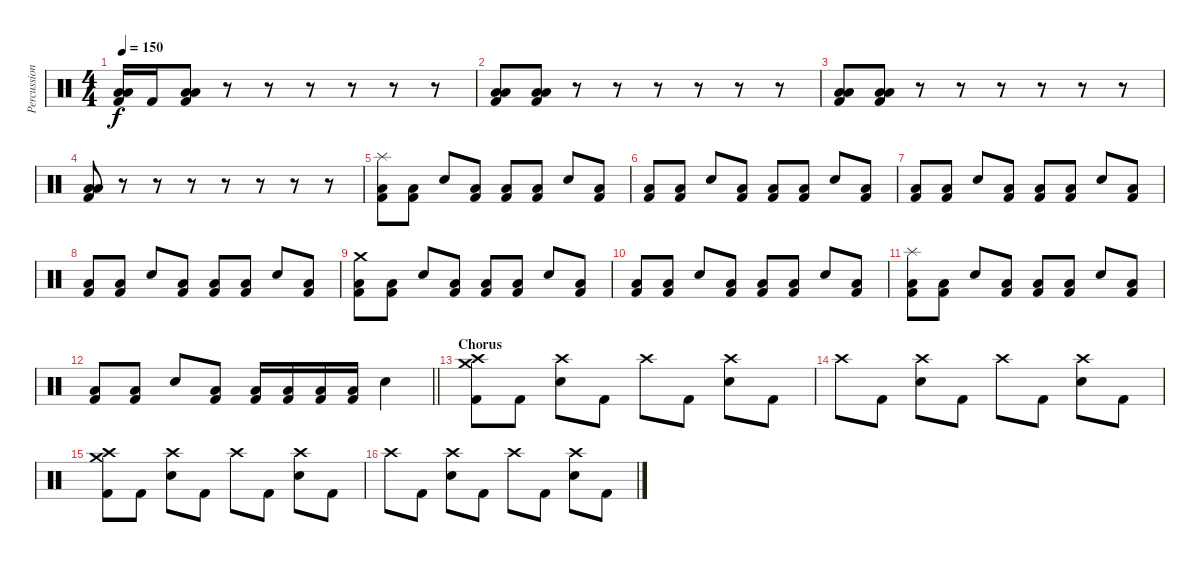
\track ("Percussion" "Percussion") {instrument percussion}
\staff {score}
\articulation defaults
\ts (4 4)
\tempo 150
\clef neutral
\ks c
("Low Tom (hit)" "Low Floor Tom (hit)" "Kick (hit) 2").16{dy f} "Kick (hit) 2".16 ("Low Tom (hit)" "Low Floor Tom (hit)" "Kick (hit) 2").8 r.8 r.8 r.8 r.8 r.8 r.8 |
("Low Tom (hit)" "Low Floor Tom (hit)" "Kick (hit) 2").8 ("Low Tom (hit)" "Low Floor Tom (hit)" "Kick (hit) 2").8 r.8 r.8 r.8 r.8 r.8 r.8 |
("Low Tom (hit)" "Low Floor Tom (hit)" "Kick (hit) 2").8 ("Low Tom (hit)" "Low Floor Tom (hit)" "Kick (hit) 2").8 r.8 r.8 r.8 r.8 r.8 r.8 |
("Low Tom (hit)" "Low Floor Tom (hit)" "Kick (hit) 2").8 r.8 r.8 r.8 r.8 r.8 r.8 r.8 |
("Splash (hit)" "Low Floor Tom (hit)" "Kick (hit) 2").8 ("Low Floor Tom (hit)" "Kick (hit) 2").8 "Snare (hit) 2".8 ("Low Floor Tom (hit)" "Kick (hit) 2").8 ("Low Floor Tom (hit)" "Kick (hit) 2").8 ("Low Floor Tom (hit)" "Kick (hit) 2").8 "Snare (hit) 2".8 ("Low Floor Tom (hit)" "Kick (hit) 2").8 |
("Low Floor Tom (hit)" "Kick (hit) 2").8 ("Low Floor Tom (hit)" "Kick (hit) 2").8 "Snare (hit) 2".8 ("Low Floor Tom (hit)" "Kick (hit) 2").8 ("Low Floor Tom (hit)" "Kick (hit) 2").8 ("Low Floor Tom (hit)" "Kick (hit) 2").8 "Snare (hit) 2".8 ("Low Floor Tom (hit)" "Kick (hit) 2").8 |
("Low Floor Tom (hit)" "Kick (hit) 2").8 ("Low Floor Tom (hit)" "Kick (hit) 2").8 "Snare (hit) 2".8 ("Low Floor Tom (hit)" "Kick (hit) 2").8 ("Low Floor Tom (hit)" "Kick (hit) 2").8 ("Low Floor Tom (hit)" "Kick (hit) 2").8 "Snare (hit) 2".8 ("Low Floor Tom (hit)" "Kick (hit) 2").8 |
("Low Floor Tom (hit)" "Kick (hit) 2").8 ("Low Floor Tom (hit)" "Kick (hit) 2").8 "Snare (hit) 2".8 ("Low Floor Tom (hit)" "Kick (hit) 2").8 ("Low Floor Tom (hit)" "Kick (hit) 2").8 ("Low Floor Tom (hit)" "Kick (hit) 2").8 "Snare (hit) 2".8 ("Low Floor Tom (hit)" "Kick (hit) 2").8 |
("Crash medium (hit)" "Low Floor Tom (hit)" "Kick (hit) 2").8 ("Low Floor Tom (hit)" "Kick (hit) 2").8 "Snare (hit) 2".8 ("Low Floor Tom (hit)" "Kick (hit) 2").8 ("Low Floor Tom (hit)" "Kick (hit) 2").8 ("Low Floor Tom (hit)" "Kick (hit) 2").8 "Snare (hit) 2".8 ("Low Floor Tom (hit)" "Kick (hit) 2").8 |
("Low Floor Tom (hit)" "Kick (hit) 2").8 ("Low Floor Tom (hit)" "Kick (hit) 2").8 "Snare (hit) 2".8 ("Low Floor Tom (hit)" "Kick (hit) 2").8 ("Low Floor Tom (hit)" "Kick (hit) 2").8 ("Low Floor Tom (hit)" "Kick (hit) 2").8 "Snare (hit) 2".8 ("Low Floor Tom (hit)" "Kick (hit) 2").8 |
("Splash (hit)" "Low Floor Tom (hit)" "Kick (hit) 2").8 ("Low Floor Tom (hit)" "Kick (hit) 2").8 "Snare (hit) 2".8 ("Low Floor Tom (hit)" "Kick (hit) 2").8 ("Low Floor Tom (hit)" "Kick (hit) 2").8 ("Low Floor Tom (hit)" "Kick (hit) 2").8 "Snare (hit) 2".8 ("Low Floor Tom (hit)" "Kick (hit) 2").8 |
\barLineRight lightlight
("Low Floor Tom (hit)" "Kick (hit) 2").8 ("Low Floor Tom (hit)" "Kick (hit) 2").8 "Snare (hit) 2".8 ("Low Floor Tom (hit)" "Kick (hit) 2").8 ("Low Floor Tom (hit)" "Kick (hit) 2").16 ("Low Floor Tom (hit)" "Kick (hit) 2").16 ("Low Floor Tom (hit)" "Kick (hit) 2").16 ("Low Floor Tom (hit)" "Kick (hit) 2").16 "Snare (hit) 2".4 |
\section ("" "Chorus")
("Crash high (hit)" "Crash medium (hit)" "Kick (hit) 2").8 "Kick (hit) 2".8 ("Crash high (hit)" "Snare (hit) 2").8 "Kick (hit) 2".8 "Crash high (hit)".8 "Kick (hit) 2".8 ("Crash high (hit)" "Snare (hit) 2").8 "Kick (hit) 2".8 |
"Crash high (hit)".8 "Kick (hit) 2".8 ("Crash high (hit)" "Snare (hit) 2").8 "Kick (hit) 2".8 "Crash high (hit)".8 "Kick (hit) 2".8 ("Crash high (hit)" "Snare (hit) 2").8 "Kick (hit) 2".8 |
("Crash high (hit)" "Crash medium (hit)" "Kick (hit) 2").8 "Kick (hit) 2".8 ("Crash high (hit)" "Snare (hit) 2").8 "Kick (hit) 2".8 "Crash high (hit)".8 "Kick (hit) 2".8 ("Crash high (hit)" "Snare (hit) 2").8 "Kick (hit) 2".8 |
"Crash high (hit)".8 "Kick (hit) 2".8 ("Crash high (hit)" "Snare (hit) 2").8 "Kick (hit) 2".8 "Crash high (hit)".8 "Kick (hit) 2".8 ("Crash high (hit)" "Snare (hit) 2").8 "Kick (hit) 2".8
